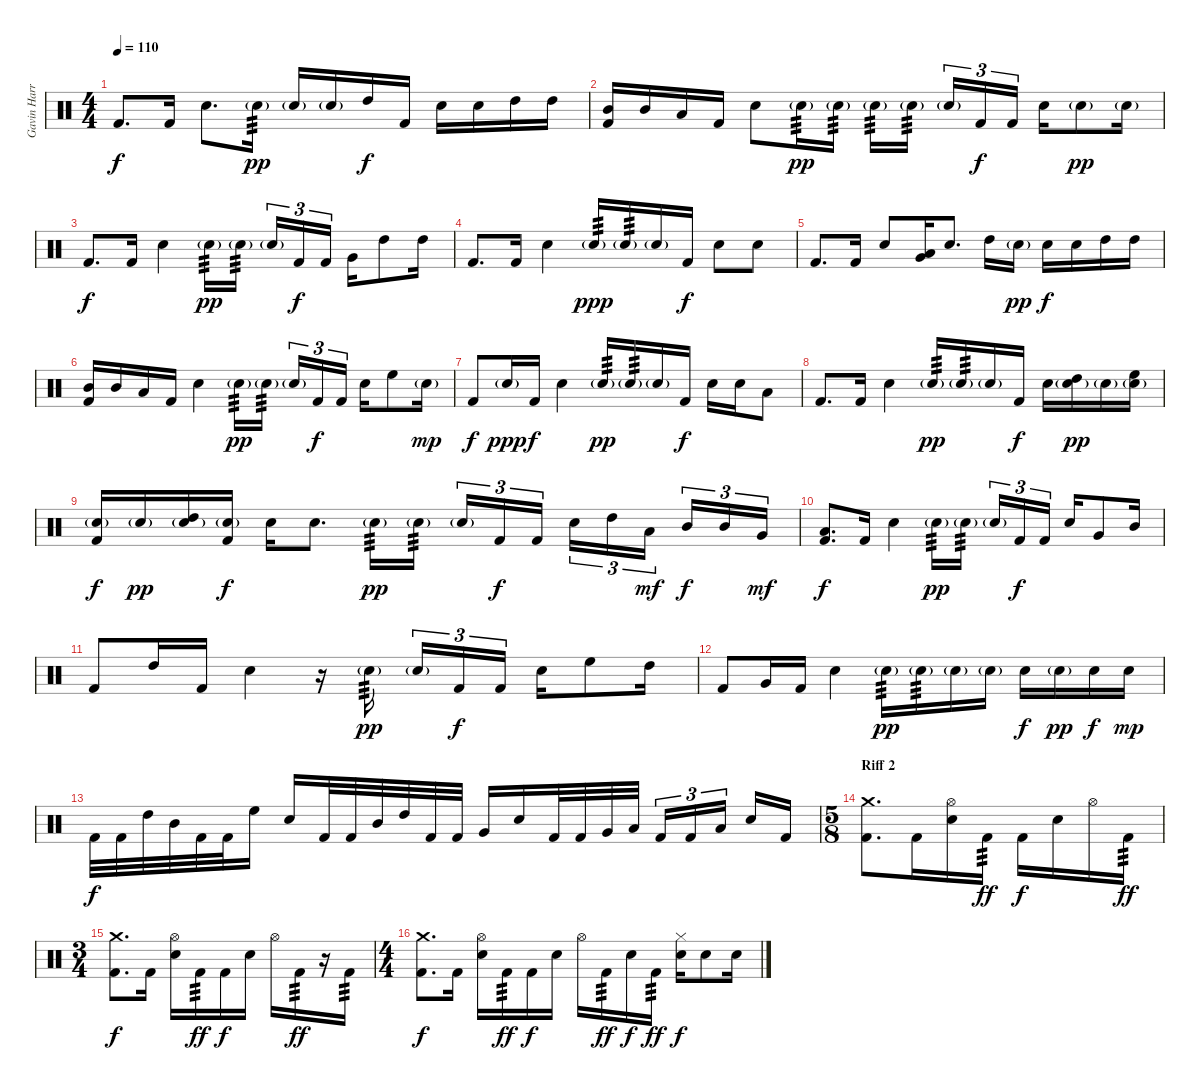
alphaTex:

\track ("Gavin Harrison - Drums" "Gavin Harr") {instrument percussion}
\staff {score}
\articulation defaults
\ts (4 4)
\tempo 110
\clef neutral
\ks c "Kick (hit) 2".8{d dy f} "Kick (hit) 2".16 "Electric Snare (hit)".8{d} "Electric Snare (hit)"{g}.16{tp 3 dy pp} "Electric Snare (hit)"{g}.16 "Electric Snare (hit)"{g}.16 "High Tom (hit)".16{dy f} "Kick (hit) 2".16 "Electric Snare (hit)".16 "Electric Snare (hit)".16 "High Tom (hit)".16 "High Tom (hit)".16
|
("Mid Tom (hit)" "Kick (hit) 2").16 "Mid Tom (hit)".16 "Low Floor Tom (hit)".16 "Kick (hit) 2".16 "Electric Snare (hit)".8 "Electric Snare (hit)"{g}.16{tp 3 dy pp} "Electric Snare (hit)"{g}.16{tp 3} "Electric Snare (hit)"{g}.16{tp 3} "Electric Snare (hit)"{g}.16{tp 3} "Electric Snare (hit)"{g}.16{tu (3 2)} "Kick (hit) 2".16{tu (3 2) dy f} "Kick (hit) 2".16{tu (3 2)} "Electric Snare (hit)".16 "Electric Snare (hit)"{g}.8{dy pp} "Electric Snare (hit)"{g}.16 |
"Kick (hit) 2".8{d dy f} "Kick (hit) 2".16 "Electric Snare (hit)".4 "Electric Snare (hit)"{g}.16{tp 3 dy pp} "Electric Snare (hit)"{g}.16{tp 3} "Electric Snare (hit)"{g}.16{tu (3 2)} "Kick (hit) 2".16{tu (3 2) dy f} "Kick (hit) 2".16{tu (3 2)} "Very Low Tom (hit)".16 "High Tom (hit)".8 "High Tom (hit)".16 |
"Kick (hit) 2".8{d} "Kick (hit) 2".16 "Electric Snare (hit)".4 "Electric Snare (hit)"{g}.16{tp 3 dy ppp} "Electric Snare (hit)"{g}.16{tp 3} "Electric Snare (hit)"{g}.16 "Kick (hit) 2".16{dy f} "Electric Snare (hit)".8 "Electric Snare (hit)".8 |
"Kick (hit) 2".8{d} "Kick (hit) 2".16 "Electric Snare (hit)".8 ("Very Low Tom (hit)" "Low Floor Tom (hit)").16 "Electric Snare (hit)".8{d} "High Tom (hit)".16 "Electric Snare (hit)"{g}.16{dy pp} "Electric Snare (hit)".16{dy f} "Electric Snare (hit)".16 "High Tom (hit)".16 "High Tom (hit)".16 |
("Mid Tom (hit)" "Kick (hit) 2").16 "Mid Tom (hit)".16 "Low Floor Tom (hit)".16 "Kick (hit) 2".16 "Electric Snare (hit)".4 "Electric Snare (hit)"{g}.16{tp 3 dy pp} "Electric Snare (hit)"{g}.16{tp 3} "Electric Snare (hit)"{g}.16{tu (3 2)} "Kick (hit) 2".16{tu (3 2) dy f} "Kick (hit) 2".16{tu (3 2)} "Electric Snare (hit)".16 "High Floor Tom (hit)".8 "Electric Snare (hit)"{g}.16{dy mp} |
"Kick (hit) 2".8{dy f} "Electric Snare (hit)"{g}.16{dy ppp} "Kick (hit) 2".16{dy f} "Electric Snare (hit)".4 "Electric Snare (hit)"{g}.16{tp 3 dy pp} "Electric Snare (hit)"{g}.16{tp 3} "Electric Snare (hit)"{g}.16 "Kick (hit) 2".16{dy f} "Electric Snare (hit)".16 "Electric Snare (hit)".16 "Low Floor Tom (hit)".8 |
"Kick (hit) 2".8{d} "Kick (hit) 2".16 "Electric Snare (hit)".4 "Electric Snare (hit)"{g}.16{tp 3 dy pp} "Electric Snare (hit)"{g}.16{tp 3} "Electric Snare (hit)"{g}.16 "Kick (hit) 2".16{dy f} "Electric Snare (hit)".16 ("High Tom (hit)" "Electric Snare (hit)"{g}).16{dy pp} "Electric Snare (hit)"{g}.16 ("High Floor Tom (hit)" "Electric Snare (hit)"{g}).16 |
("Electric Snare (hit)"{g} "Kick (hit) 2").16{dy f} "Electric Snare (hit)"{g}.16{dy pp} ("High Tom (hit)" "Electric Snare (hit)"{g}).16 ("Electric Snare (hit)"{g} "Kick (hit) 2").16{dy f} "Electric Snare (hit)".16 "Electric Snare (hit)".8{d} "Electric Snare (hit)"{g}.16{tp 3 dy pp} "Electric Snare (hit)"{g}.16{tp 3} "Electric Snare (hit)"{g}.16{tu (3 2)} "Kick (hit) 2".16{tu (3 2) dy f} "Kick (hit) 2".16{tu (3 2)} "Electric Snare (hit)".16{tu (3 2)} "High Tom (hit)".16{tu (3 2)} "Low Tom (hit)".16{tu (3 2) dy mf} "Mid Tom (hit)".16{tu (3 2) dy f} "Mid Tom (hit)".16{tu (3 2)} "Very Low Tom (hit)".16{tu (3 2) dy mf} |
("Low Floor Tom (hit)" "Kick (hit) 2").8{d dy f} "Kick (hit) 2".16 "Electric Snare (hit)".4 "Electric Snare (hit)"{g}.16{tp 3 dy pp} "Electric Snare (hit)"{g}.16{tp 3} "Electric Snare (hit)"{g}.16{tu (3 2)} "Kick (hit) 2".16{tu (3 2) dy f} "Kick (hit) 2".16{tu (3 2)} "Electric Snare (hit)".16 "Very Low Tom (hit)".8 "Mid Tom (hit)".16 |
"Kick (hit) 2".8 "High Tom (hit)".16 "Kick (hit) 2".16 "Electric Snare (hit)".4 r.16 "Electric Snare (hit)"{g}.16{tp 3 dy pp} "Electric Snare (hit)"{g}.16{tu (3 2)} "Kick (hit) 2".16{tu (3 2) dy f} "Kick (hit) 2".16{tu (3 2)} "Electric Snare (hit)".16 "High Floor Tom (hit)".8 "High Tom (hit)".16 |
"Kick (hit) 2".8 "Very Low Tom (hit)".16 "Kick (hit) 2".16 "Electric Snare (hit)".4 "Electric Snare (hit)"{g}.16{tp 3 dy pp} "Electric Snare (hit)"{g}.16{tp 3} "Electric Snare (hit)"{g}.16 "Electric Snare (hit)"{g}.16 "Electric Snare (hit)".16{dy f} "Electric Snare (hit)"{g}.16{dy pp} "Electric Snare (hit)".16{dy f} "Electric Snare (hit)".16{dy mp} |
"Kick (hit) 2".32{dy f} "Kick (hit) 2".32 "High Tom (hit)".32 "Mid Tom (hit)".32 "Kick (hit) 2".32 "Kick (hit) 2".32 "High Floor Tom (hit)".16 "Electric Snare (hit)".16 "Kick (hit) 2".32 "Kick (hit) 2".32 "Mid Tom (hit)".32 "High Tom (hit)".32 "Kick (hit) 2".32 "Kick (hit) 2".32 "Very Low Tom (hit)".16 "Electric Snare (hit)".16 "Kick (hit) 2".32 "Kick (hit) 2".32 "Very Low Tom (hit)".32 "Low Tom (hit)".32 "Kick (hit) 2".16{tu (3 2)} "Kick (hit) 2".16{tu (3 2)} "Low Floor Tom (hit)".16{tu (3 2)} "Electric Snare (hit)".16 "Kick (hit) 2".16 |
\ts (5 8)
\section ("" "Riff 2")
("Crash medium (hit)" "Kick (hit) 2").8{d} "Kick (hit) 2".16 ("Hi-Hat (open)" "Electric Snare (hit)").16 "Kick (hit) 2".16{tp 3 dy ff} "Kick (hit) 2".16{dy f} "Electric Snare (hit)".16 "Hi-Hat (open)".16 "Kick (hit) 2".16{tp 3 dy ff} |
\ts (3 4)
("Crash medium (hit)" "Kick (hit) 2").8{d dy f} "Kick (hit) 2".16 ("Hi-Hat (open)" "Electric Snare (hit)").16 "Kick (hit) 2".16{tp 3 dy ff} "Kick (hit) 2".16{dy f} "Electric Snare (hit)".16 "Hi-Hat (open)".16 "Kick (hit) 2".16{tp 3 dy ff} r.16 "Kick (hit) 2".16{tp 3} |
\ts (4 4)
("Crash medium (hit)" "Kick (hit) 2").8{d dy f} "Kick (hit) 2".16 ("Hi-Hat (open)" "Electric Snare (hit)").16 "Kick (hit) 2".16{tp 3 dy ff} "Kick (hit) 2".16{dy f} "Electric Snare (hit)".16 "Hi-Hat (open)".16 "Kick (hit) 2".16{tp 3 dy ff} "Electric Snare (hit)".16{dy f} "Kick (hit) 2".16{tp 3 dy ff} ("Hi-Hat (closed)" "Electric Snare (hit)").16{dy f} "Electric Snare (hit)".8 "Electric Snare (hit)".16
